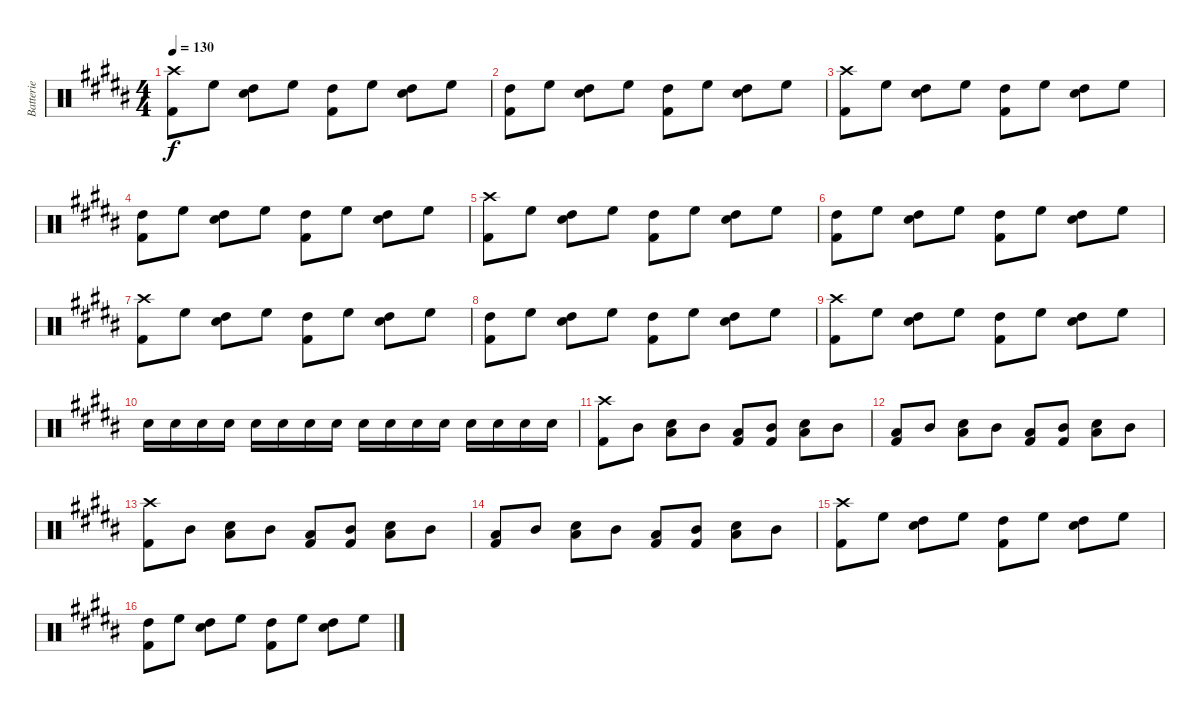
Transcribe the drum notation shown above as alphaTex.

\track ("Batterie" "Batterie") {instrument percussion}
\staff {score}
\articulation defaults
\ts (4 4)
\tempo 130
\clef neutral
\ks b
("Crash high (hit)" "Kick (hit) 2").8{dy f} "High Floor Tom (hit)".8 ("High Tom (hit)" "Snare (hit) 2").8 "High Floor Tom (hit)".8 ("High Tom (hit)" "Kick (hit) 2").8 "High Floor Tom (hit)".8 ("High Tom (hit)" "Snare (hit) 2").8 "High Floor Tom (hit)".8 |
("High Tom (hit)" "Kick (hit) 2").8 "High Floor Tom (hit)".8 ("High Tom (hit)" "Snare (hit) 2").8 "High Floor Tom (hit)".8 ("High Tom (hit)" "Kick (hit) 2").8 "High Floor Tom (hit)".8 ("High Tom (hit)" "Snare (hit) 2").8 "High Floor Tom (hit)".8 |
("Crash high (hit)" "Kick (hit) 2").8 "High Floor Tom (hit)".8 ("High Tom (hit)" "Snare (hit) 2").8 "High Floor Tom (hit)".8 ("High Tom (hit)" "Kick (hit) 2").8 "High Floor Tom (hit)".8 ("High Tom (hit)" "Snare (hit) 2").8 "High Floor Tom (hit)".8 |
("High Tom (hit)" "Kick (hit) 2").8 "High Floor Tom (hit)".8 ("High Tom (hit)" "Snare (hit) 2").8 "High Floor Tom (hit)".8 ("High Tom (hit)" "Kick (hit) 2").8 "High Floor Tom (hit)".8 ("High Tom (hit)" "Snare (hit) 2").8 "High Floor Tom (hit)".8 |
("Crash high (hit)" "Kick (hit) 2").8 "High Floor Tom (hit)".8 ("High Tom (hit)" "Snare (hit) 2").8 "High Floor Tom (hit)".8 ("High Tom (hit)" "Kick (hit) 2").8 "High Floor Tom (hit)".8 ("High Tom (hit)" "Snare (hit) 2").8 "High Floor Tom (hit)".8 |
("High Tom (hit)" "Kick (hit) 2").8 "High Floor Tom (hit)".8 ("High Tom (hit)" "Snare (hit) 2").8 "High Floor Tom (hit)".8 ("High Tom (hit)" "Kick (hit) 2").8 "High Floor Tom (hit)".8 ("High Tom (hit)" "Snare (hit) 2").8 "High Floor Tom (hit)".8 |
("Crash high (hit)" "Kick (hit) 2").8 "High Floor Tom (hit)".8 ("High Tom (hit)" "Snare (hit) 2").8 "High Floor Tom (hit)".8 ("High Tom (hit)" "Kick (hit) 2").8 "High Floor Tom (hit)".8 ("High Tom (hit)" "Snare (hit) 2").8 "High Floor Tom (hit)".8 |
("High Tom (hit)" "Kick (hit) 2").8 "High Floor Tom (hit)".8 ("High Tom (hit)" "Snare (hit) 2").8 "High Floor Tom (hit)".8 ("High Tom (hit)" "Kick (hit) 2").8 "High Floor Tom (hit)".8 ("High Tom (hit)" "Snare (hit) 2").8 "High Floor Tom (hit)".8 |
("Crash high (hit)" "Kick (hit) 2").8 "High Floor Tom (hit)".8 ("High Tom (hit)" "Snare (hit) 2").8 "High Floor Tom (hit)".8 ("High Tom (hit)" "Kick (hit) 2").8 "High Floor Tom (hit)".8 ("High Tom (hit)" "Snare (hit) 2").8 "High Floor Tom (hit)".8 |
"Snare (hit) 2".16 "Snare (hit) 2".16 "Snare (hit) 2".16 "Snare (hit) 2".16 "Snare (hit) 2".16 "Snare (hit) 2".16 "Snare (hit) 2".16 "Snare (hit) 2".16 "Snare (hit) 2".16 "Snare (hit) 2".16 "Snare (hit) 2".16 "Snare (hit) 2".16 "Snare (hit) 2".16 "Snare (hit) 2".16 "Snare (hit) 2".16 "Snare (hit) 2".16 |
("Crash high (hit)" "Kick (hit) 2").8 "Mid Tom (hit)".8 ("Low Tom (hit)" "Snare (hit) 2").8 "Mid Tom (hit)".8 ("Low Tom (hit)" "Kick (hit) 2").8 ("Mid Tom (hit)" "Kick (hit) 2").8 ("Low Tom (hit)" "Snare (hit) 2").8 "Mid Tom (hit)".8 |
("Low Tom (hit)" "Kick (hit) 2").8 "Mid Tom (hit)".8 ("Low Tom (hit)" "Snare (hit) 2").8 "Mid Tom (hit)".8 ("Low Tom (hit)" "Kick (hit) 2").8 ("Mid Tom (hit)" "Kick (hit) 2").8 ("Low Tom (hit)" "Snare (hit) 2").8 "Mid Tom (hit)".8 |
("Crash high (hit)" "Kick (hit) 2").8 "Mid Tom (hit)".8 ("Low Tom (hit)" "Snare (hit) 2").8 "Mid Tom (hit)".8 ("Low Tom (hit)" "Kick (hit) 2").8 ("Mid Tom (hit)" "Kick (hit) 2").8 ("Low Tom (hit)" "Snare (hit) 2").8 "Mid Tom (hit)".8 |
("Low Tom (hit)" "Kick (hit) 2").8 "Mid Tom (hit)".8 ("Low Tom (hit)" "Snare (hit) 2").8 "Mid Tom (hit)".8 ("Low Tom (hit)" "Kick (hit) 2").8 ("Mid Tom (hit)" "Kick (hit) 2").8 ("Low Tom (hit)" "Snare (hit) 2").8 "Mid Tom (hit)".8 |
("Crash high (hit)" "Kick (hit) 2").8 "High Floor Tom (hit)".8 ("High Tom (hit)" "Snare (hit) 2").8 "High Floor Tom (hit)".8 ("High Tom (hit)" "Kick (hit) 2").8 "High Floor Tom (hit)".8 ("High Tom (hit)" "Snare (hit) 2").8 "High Floor Tom (hit)".8 |
("High Tom (hit)" "Kick (hit) 2").8 "High Floor Tom (hit)".8 ("High Tom (hit)" "Snare (hit) 2").8 "High Floor Tom (hit)".8 ("High Tom (hit)" "Kick (hit) 2").8 "High Floor Tom (hit)".8 ("High Tom (hit)" "Snare (hit) 2").8 "High Floor Tom (hit)".8
